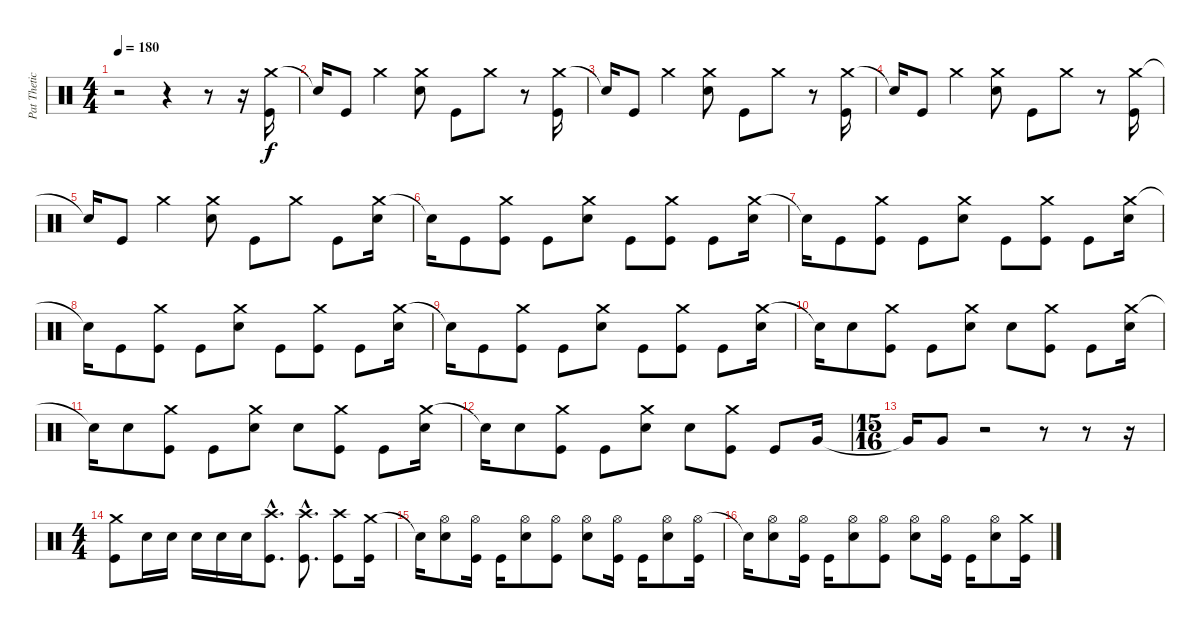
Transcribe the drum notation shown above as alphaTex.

\track ("Pat Thetic" "Pat Thetic") {instrument percussion}
\staff {score}
\articulation defaults
\ts (4 4)
\tempo 180
\clef neutral
\ks c
r.2{dy f} r.4 r.8 r.16 ("Crash medium (hit)" "Kick (hit)").16 |
"Snare (hit)"{t}.16 "Kick (hit)".8 "Crash medium (hit)".4 ("Crash medium (hit)" "Electric Snare (hit)").8 "Kick (hit)".8 "Crash medium (hit)".8 r.8 ("Crash medium (hit)" "Kick (hit)").16 |
"Snare (hit)"{t}.16 "Kick (hit)".8 "Crash medium (hit)".4 ("Crash medium (hit)" "Electric Snare (hit)").8 "Kick (hit)".8 "Crash medium (hit)".8 r.8 ("Crash medium (hit)" "Kick (hit)").16 |
"Snare (hit)"{t}.16 "Kick (hit)".8 "Crash medium (hit)".4 ("Crash medium (hit)" "Electric Snare (hit)").8 "Kick (hit)".8 "Crash medium (hit)".8 r.8 ("Crash medium (hit)" "Kick (hit)").16 |
"Snare (hit)"{t}.16 "Kick (hit)".8 "Crash medium (hit)".4 ("Crash medium (hit)" "Electric Snare (hit)").8 "Kick (hit)".8 "Crash medium (hit)".8 "Kick (hit)".8 ("Crash medium (hit)" "Electric Snare (hit)").16 |
"Snare (hit)"{t}.16 "Kick (hit)".8 ("Crash medium (hit)" "Kick (hit)").8 "Kick (hit)".8 ("Crash medium (hit)" "Electric Snare (hit)").8 "Kick (hit)".8 ("Crash medium (hit)" "Kick (hit)").8 "Kick (hit)".8 ("Crash medium (hit)" "Electric Snare (hit)").16 |
"Snare (hit)"{t}.16 "Kick (hit)".8 ("Crash medium (hit)" "Kick (hit)").8 "Kick (hit)".8 ("Crash medium (hit)" "Electric Snare (hit)").8 "Kick (hit)".8 ("Crash medium (hit)" "Kick (hit)").8 "Kick (hit)".8 ("Crash medium (hit)" "Electric Snare (hit)").16 |
"Snare (hit)"{t}.16 "Kick (hit)".8 ("Crash medium (hit)" "Kick (hit)").8 "Kick (hit)".8 ("Crash medium (hit)" "Electric Snare (hit)").8 "Kick (hit)".8 ("Crash medium (hit)" "Kick (hit)").8 "Kick (hit)".8 ("Crash medium (hit)" "Electric Snare (hit)").16 |
"Snare (hit)"{t}.16 "Kick (hit)".8 ("Crash medium (hit)" "Kick (hit)").8 "Kick (hit)".8 ("Crash medium (hit)" "Electric Snare (hit)").8 "Kick (hit)".8 ("Crash medium (hit)" "Kick (hit)").8 "Kick (hit)".8 ("Crash medium (hit)" "Electric Snare (hit)").16 |
"Snare (hit)"{t}.16 "Electric Snare (hit)".8 ("Crash medium (hit)" "Kick (hit)").8 "Kick (hit)".8 ("Crash medium (hit)" "Electric Snare (hit)").8 "Electric Snare (hit)".8 ("Crash medium (hit)" "Kick (hit)").8 "Kick (hit)".8 ("Crash medium (hit)" "Electric Snare (hit)").16 |
"Snare (hit)"{t}.16 "Electric Snare (hit)".8 ("Crash medium (hit)" "Kick (hit)").8 "Kick (hit)".8 ("Crash medium (hit)" "Electric Snare (hit)").8 "Electric Snare (hit)".8 ("Crash medium (hit)" "Kick (hit)").8 "Kick (hit)".8 ("Crash medium (hit)" "Electric Snare (hit)").16 |
"Snare (hit)"{t}.16 "Electric Snare (hit)".8 ("Crash medium (hit)" "Kick (hit)").8 "Kick (hit)".8 ("Crash medium (hit)" "Electric Snare (hit)").8 "Electric Snare (hit)".8 ("Crash medium (hit)" "Kick (hit)").8 "Kick (hit)".8 "Very Low Tom (hit)".16 |
\ts (15 16)
"Very Low Tom (hit)"{t}.16 "Very Low Tom (hit)".8 r.2 r.8 r.8 r.16 |
\ts (4 4)
("Crash medium (hit)" "Kick (hit)").8 "Electric Snare (hit)".16 "Electric Snare (hit)".16 "Electric Snare (hit)".16 "Electric Snare (hit)".16 "Electric Snare (hit)".16 ("Crash high (hit)"{hac} "Kick (hit)"{hac}).8{d} ("Crash high (hit)"{hac} "Kick (hit)"{hac}).8{d} ("Crash high (hit)" "Kick (hit)").8 ("Crash medium (hit)" "Kick (hit)").16 |
"Snare (hit)"{t}.16 ("Hi-Hat (open)" "Electric Snare (hit)").8 ("Hi-Hat (open)" "Kick (hit)").16 "Kick (hit)".16 ("Hi-Hat (open)" "Electric Snare (hit)").8 ("Hi-Hat (open)" "Kick (hit)").8 ("Hi-Hat (open)" "Electric Snare (hit)").8 ("Hi-Hat (open)" "Kick (hit)").16 "Kick (hit)".16 ("Hi-Hat (open)" "Electric Snare (hit)").8 ("Hi-Hat (open)" "Kick (hit)").16 |
"Snare (hit)"{t}.16 ("Hi-Hat (open)" "Electric Snare (hit)").8 ("Hi-Hat (open)" "Kick (hit)").16 "Kick (hit)".16 ("Hi-Hat (open)" "Electric Snare (hit)").8 ("Hi-Hat (open)" "Kick (hit)").8 ("Hi-Hat (open)" "Electric Snare (hit)").8 ("Hi-Hat (open)" "Kick (hit)").16 "Kick (hit)".16 ("Hi-Hat (open)" "Electric Snare (hit)").8 ("Crash medium (hit)" "Kick (hit)").16
